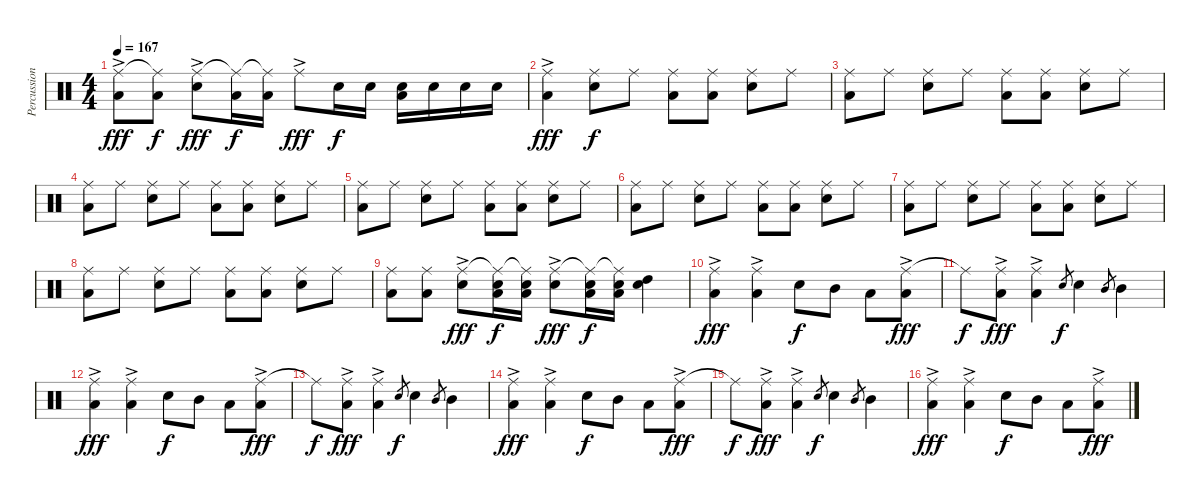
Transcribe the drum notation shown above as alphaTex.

\track ("Percussion" "Percussion") {instrument percussion}
\staff {score}
\articulation defaults
\ts (4 4)
\tempo 167
\clef neutral
\ks c
("Ride (middle)"{ac} "Low Floor Tom (hit)").8{dy fff} ("Ride (middle)"{t} "Low Floor Tom (hit)").8{dy f} ("Ride (middle)"{ac} "Snare (hit) 2").8{dy fff} ("Ride (middle)"{t} "Low Floor Tom (hit)").16{dy f} ("Ride (middle)"{t} "Low Floor Tom (hit)").16 "Ride (middle)"{ac}.8{dy fff} "Snare (hit) 2".16{dy f} "Snare (hit) 2".16 ("Snare (hit) 2" "Low Floor Tom (hit)").16 "Snare (hit) 2".16 "Snare (hit) 2".16 "Snare (hit) 2".16 |
("Ride (middle)"{ac} "Low Floor Tom (hit)").4{dy fff} ("Ride (middle)" "Snare (hit) 2").8{dy f} "Ride (middle)".8 ("Ride (middle)" "Low Floor Tom (hit)").8 ("Ride (middle)" "Low Floor Tom (hit)").8 ("Ride (middle)" "Snare (hit) 2").8 "Ride (middle)".8 |
("Ride (middle)" "Low Floor Tom (hit)").8 "Ride (middle)".8 ("Ride (middle)" "Snare (hit) 2").8 "Ride (middle)".8 ("Ride (middle)" "Low Floor Tom (hit)").8 ("Ride (middle)" "Low Floor Tom (hit)").8 ("Ride (middle)" "Snare (hit) 2").8 "Ride (middle)".8 |
("Ride (middle)" "Low Floor Tom (hit)").8 "Ride (middle)".8 ("Ride (middle)" "Snare (hit) 2").8 "Ride (middle)".8 ("Ride (middle)" "Low Floor Tom (hit)").8 ("Ride (middle)" "Low Floor Tom (hit)").8 ("Ride (middle)" "Snare (hit) 2").8 "Ride (middle)".8 |
("Ride (middle)" "Low Floor Tom (hit)").8 "Ride (middle)".8 ("Ride (middle)" "Snare (hit) 2").8 "Ride (middle)".8 ("Ride (middle)" "Low Floor Tom (hit)").8 ("Ride (middle)" "Low Floor Tom (hit)").8 ("Ride (middle)" "Snare (hit) 2").8 "Ride (middle)".8 |
("Ride (middle)" "Low Floor Tom (hit)").8 "Ride (middle)".8 ("Ride (middle)" "Snare (hit) 2").8 "Ride (middle)".8 ("Ride (middle)" "Low Floor Tom (hit)").8 ("Ride (middle)" "Low Floor Tom (hit)").8 ("Ride (middle)" "Snare (hit) 2").8 "Ride (middle)".8 |
("Ride (middle)" "Low Floor Tom (hit)").8 "Ride (middle)".8 ("Ride (middle)" "Snare (hit) 2").8 "Ride (middle)".8 ("Ride (middle)" "Low Floor Tom (hit)").8 ("Ride (middle)" "Low Floor Tom (hit)").8 ("Ride (middle)" "Snare (hit) 2").8 "Ride (middle)".8 |
("Ride (middle)" "Low Floor Tom (hit)").8 "Ride (middle)".8 ("Ride (middle)" "Snare (hit) 2").8 "Ride (middle)".8 ("Ride (middle)" "Low Floor Tom (hit)").8 ("Ride (middle)" "Low Floor Tom (hit)").8 ("Ride (middle)" "Snare (hit) 2").8 "Ride (middle)".8 |
("Ride (middle)" "Low Floor Tom (hit)").8 ("Ride (middle)" "Low Floor Tom (hit)").8 ("Ride (middle)"{ac} "Snare (hit) 2").8{dy fff} ("Ride (middle)"{t} "Snare (hit) 2" "Low Floor Tom (hit)").16{dy f} ("Ride (middle)"{t} "Snare (hit) 2" "Low Floor Tom (hit)").16 ("Ride (middle)"{ac} "Snare (hit) 2").8{dy fff} ("Ride (middle)"{t} "Snare (hit) 2" "Low Floor Tom (hit)").16{dy f} ("Ride (middle)"{t} "Snare (hit) 2" "Low Floor Tom (hit)").16 ("High Tom (hit)" "Snare (hit) 2").4 |
("Ride (middle)"{ac} "Low Floor Tom (hit)").4{dy fff} ("Ride (middle)"{ac} "Low Floor Tom (hit)").4 "Snare (hit) 2".8{dy f} "Mid Tom (hit)".8 "Low Tom (hit)".8 ("Ride (middle)"{ac} "Low Floor Tom (hit)").8{dy fff} |
"Ride (middle)"{t}.8{dy f} ("Ride (middle)"{ac} "Low Floor Tom (hit)").8{dy fff} ("Ride (middle)"{ac} "Low Floor Tom (hit)").4 "Snare (hit) 2".8{gr dy f} "Snare (hit) 2".4 "Mid Tom (hit)".8{gr} "Mid Tom (hit)".4 |
("Ride (middle)"{ac} "Low Floor Tom (hit)").4{dy fff} ("Ride (middle)"{ac} "Low Floor Tom (hit)").4 "Snare (hit) 2".8{dy f} "Mid Tom (hit)".8 "Low Tom (hit)".8 ("Ride (middle)"{ac} "Low Floor Tom (hit)").8{dy fff} |
"Ride (middle)"{t}.8{dy f} ("Ride (middle)"{ac} "Low Floor Tom (hit)").8{dy fff} ("Ride (middle)"{ac} "Low Floor Tom (hit)").4 "Snare (hit) 2".8{gr dy f} "Snare (hit) 2".4 "Mid Tom (hit)".8{gr} "Mid Tom (hit)".4 |
("Ride (middle)"{ac} "Low Floor Tom (hit)").4{dy fff} ("Ride (middle)"{ac} "Low Floor Tom (hit)").4 "Snare (hit) 2".8{dy f} "Mid Tom (hit)".8 "Low Tom (hit)".8 ("Ride (middle)"{ac} "Low Floor Tom (hit)").8{dy fff} |
"Ride (middle)"{t}.8{dy f} ("Ride (middle)"{ac} "Low Floor Tom (hit)").8{dy fff} ("Ride (middle)"{ac} "Low Floor Tom (hit)").4 "Snare (hit) 2".8{gr dy f} "Snare (hit) 2".4 "Mid Tom (hit)".8{gr} "Mid Tom (hit)".4 |
("Ride (middle)"{ac} "Low Floor Tom (hit)").4{dy fff} ("Ride (middle)"{ac} "Low Floor Tom (hit)").4 "Snare (hit) 2".8{dy f} "Mid Tom (hit)".8 "Low Tom (hit)".8 ("Ride (middle)"{ac} "Low Floor Tom (hit)").8{dy fff}
